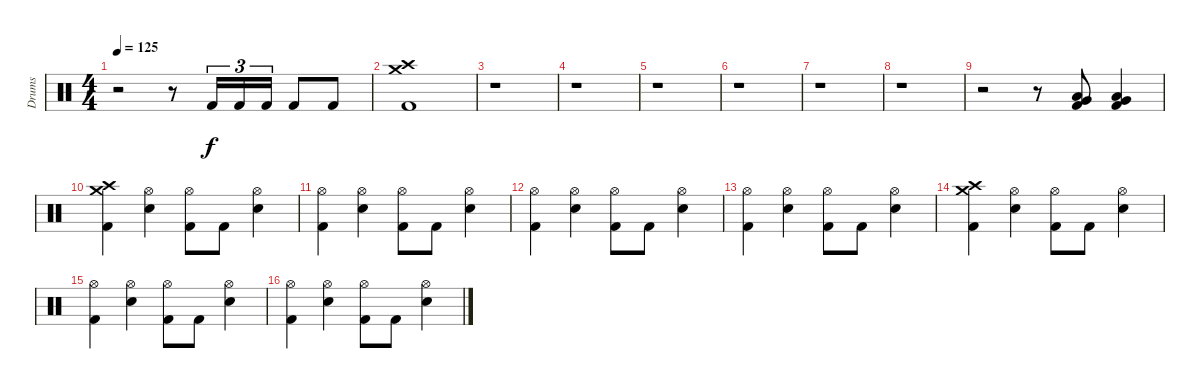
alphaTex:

\track ("Drums" "Drums") {instrument percussion}
\staff {score}
\articulation defaults
\ts (4 4)
\tempo 125
\clef neutral
\ks c
r.2{dy f} r.8 "Kick (hit) 2".16{tu (3 2)} "Kick (hit) 2".16{tu (3 2)} "Kick (hit) 2".16{tu (3 2)} "Kick (hit) 2".8 "Kick (hit) 2".8 |
("Crash medium (hit)" "Crash high (hit)" "Kick (hit) 2").1 |
r.1 |
r.1 |
r.1 |
r.1 |
r.1 |
r.1 |
r.2 r.8 ("Low Tom (hit)" "Very Low Tom (hit)" "Kick (hit) 2").8 ("Low Tom (hit)" "Very Low Tom (hit)" "Kick (hit) 2").4 |
("Crash medium (hit)" "Crash high (hit)" "Kick (hit) 2").4 ("Hi-Hat (open)" "Electric Snare (hit)").4 ("Hi-Hat (open)" "Kick (hit) 2").8 "Kick (hit) 2".8 ("Hi-Hat (open)" "Electric Snare (hit)").4 |
("Hi-Hat (open)" "Kick (hit) 2").4 ("Hi-Hat (open)" "Electric Snare (hit)").4 ("Hi-Hat (open)" "Kick (hit) 2").8 "Kick (hit) 2".8 ("Hi-Hat (open)" "Electric Snare (hit)").4 |
("Hi-Hat (open)" "Kick (hit) 2").4 ("Hi-Hat (open)" "Electric Snare (hit)").4 ("Hi-Hat (open)" "Kick (hit) 2").8 "Kick (hit) 2".8 ("Hi-Hat (open)" "Electric Snare (hit)").4 |
("Hi-Hat (open)" "Kick (hit) 2").4 ("Hi-Hat (open)" "Electric Snare (hit)").4 ("Hi-Hat (open)" "Kick (hit) 2").8 "Kick (hit) 2".8 ("Hi-Hat (open)" "Electric Snare (hit)").4 |
("Crash medium (hit)" "Crash high (hit)" "Kick (hit) 2").4 ("Hi-Hat (open)" "Electric Snare (hit)").4 ("Hi-Hat (open)" "Kick (hit) 2").8 "Kick (hit) 2".8 ("Hi-Hat (open)" "Electric Snare (hit)").4 |
("Hi-Hat (open)" "Kick (hit) 2").4 ("Hi-Hat (open)" "Electric Snare (hit)").4 ("Hi-Hat (open)" "Kick (hit) 2").8 "Kick (hit) 2".8 ("Hi-Hat (open)" "Electric Snare (hit)").4 |
("Hi-Hat (open)" "Kick (hit) 2").4 ("Hi-Hat (open)" "Electric Snare (hit)").4 ("Hi-Hat (open)" "Kick (hit) 2").8 "Kick (hit) 2".8 ("Hi-Hat (open)" "Electric Snare (hit)").4
